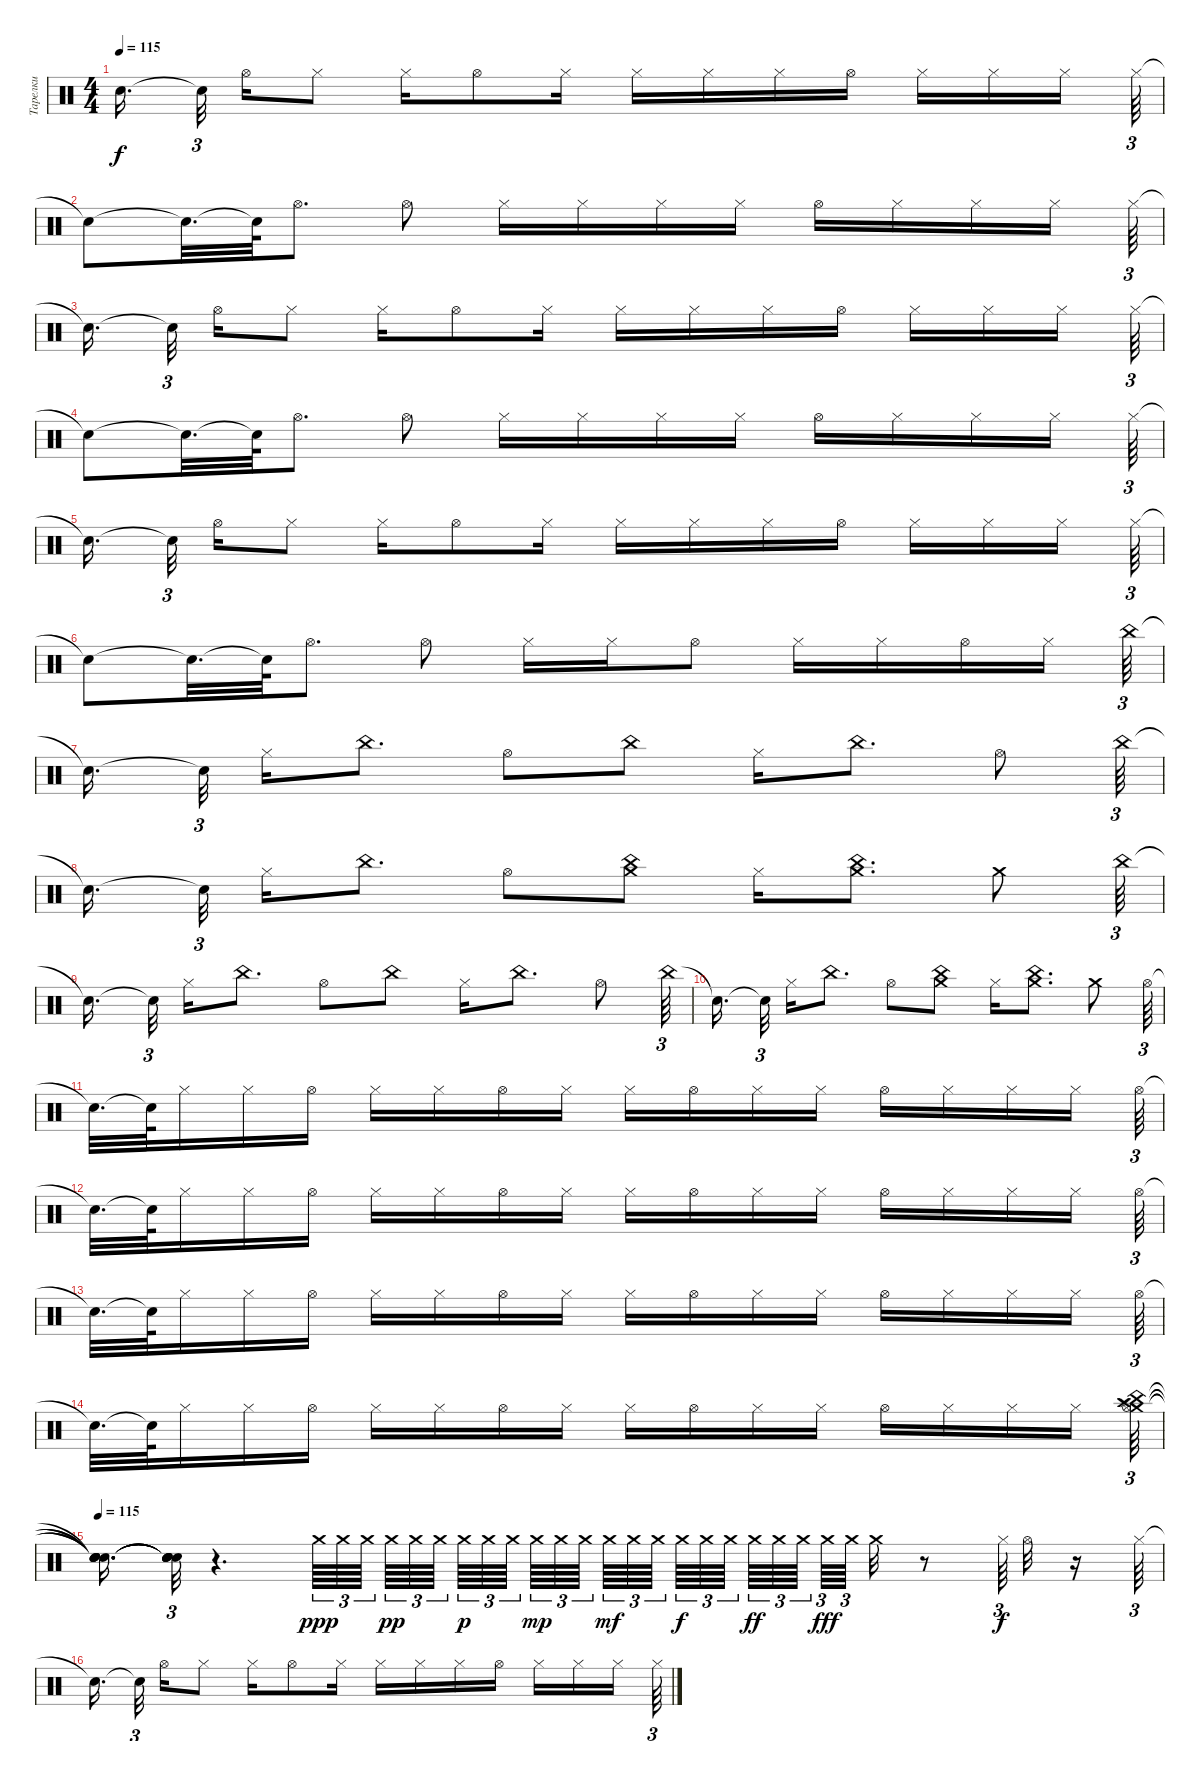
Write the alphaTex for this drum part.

\track ("Тарелки" "Тарелки") {instrument percussion}
\staff {score}
\articulation defaults
\ts (4 4)
\tempo 115
\clef neutral
\ks c "Snare (hit)"{t}.16{d dy f beam splitsecondary} "Snare (hit)"{t}.32{tu (3 2) beam splitsecondary} "Hi-Hat (open)".16 "Hi-Hat (closed)".8 "Hi-Hat (closed)".16 "Hi-Hat (open)".8 "Hi-Hat (closed)".16 "Hi-Hat (closed)".16 "Hi-Hat (closed)".16 "Hi-Hat (closed)".16 "Hi-Hat (open)".16 "Hi-Hat (closed)".16 "Hi-Hat (closed)".16 "Hi-Hat (closed)".16{beam splitsecondary} "Hi-Hat (closed)".64{tu (3 2)}
|
"Snare (hit)"{t}.8 "Snare (hit)"{t}.32{d} "Snare (hit)"{t}.64 "Hi-Hat (open)".8{d} "Hi-Hat (open)".8 "Hi-Hat (closed)".16 "Hi-Hat (closed)".16 "Hi-Hat (closed)".16 "Hi-Hat (closed)".16 "Hi-Hat (open)".16 "Hi-Hat (closed)".16 "Hi-Hat (closed)".16 "Hi-Hat (closed)".16 "Hi-Hat (closed)".64{tu (3 2)} |
"Snare (hit)"{t}.16{d beam splitsecondary} "Snare (hit)"{t}.32{tu (3 2) beam splitsecondary} "Hi-Hat (open)".16 "Hi-Hat (closed)".8 "Hi-Hat (closed)".16 "Hi-Hat (open)".8 "Hi-Hat (closed)".16 "Hi-Hat (closed)".16 "Hi-Hat (closed)".16 "Hi-Hat (closed)".16 "Hi-Hat (open)".16 "Hi-Hat (closed)".16 "Hi-Hat (closed)".16 "Hi-Hat (closed)".16{beam splitsecondary} "Hi-Hat (closed)".64{tu (3 2)} |
"Snare (hit)"{t}.8 "Snare (hit)"{t}.32{d} "Snare (hit)"{t}.64 "Hi-Hat (open)".8{d} "Hi-Hat (open)".8 "Hi-Hat (closed)".16 "Hi-Hat (closed)".16 "Hi-Hat (closed)".16 "Hi-Hat (closed)".16 "Hi-Hat (open)".16 "Hi-Hat (closed)".16 "Hi-Hat (closed)".16 "Hi-Hat (closed)".16 "Hi-Hat (closed)".64{tu (3 2)} |
"Snare (hit)"{t}.16{d beam splitsecondary} "Snare (hit)"{t}.32{tu (3 2) beam splitsecondary} "Hi-Hat (open)".16 "Hi-Hat (closed)".8 "Hi-Hat (closed)".16 "Hi-Hat (open)".8 "Hi-Hat (closed)".16 "Hi-Hat (closed)".16 "Hi-Hat (closed)".16 "Hi-Hat (closed)".16 "Hi-Hat (open)".16 "Hi-Hat (closed)".16 "Hi-Hat (closed)".16 "Hi-Hat (closed)".16{beam splitsecondary} "Hi-Hat (closed)".64{tu (3 2)} |
"Snare (hit)"{t}.8 "Snare (hit)"{t}.32{d} "Snare (hit)"{t}.64 "Hi-Hat (open)".8{d} "Hi-Hat (open)".8 "Hi-Hat (closed)".16 "Hi-Hat (closed)".16 "Hi-Hat (open)".8 "Hi-Hat (closed)".16 "Hi-Hat (closed)".16 "Hi-Hat (open)".16 "Hi-Hat (closed)".16 "China (hit)".64{tu (3 2)} |
"Snare (hit)"{t}.16{d beam splitsecondary} "Snare (hit)"{t}.32{tu (3 2) beam splitsecondary} "Hi-Hat (closed)".16 "China (hit)".8{d} "Hi-Hat (open)".8 "China (hit)".8 "Hi-Hat (closed)".16 "China (hit)".8{d} "Hi-Hat (open)".8 "China (hit)".64{tu (3 2)} |
"Snare (hit)"{t}.16{d beam splitsecondary} "Snare (hit)"{t}.32{tu (3 2) beam splitsecondary} "Hi-Hat (closed)".16 "China (hit)".8{d} "Hi-Hat (open)".8 ("China (hit)" "Crash medium (hit)").8 "Hi-Hat (closed)".16 ("China (hit)" "Crash medium (hit)").8{d} "Crash medium (hit)".8 "China (hit)".64{tu (3 2)} |
"Snare (hit)"{t}.16{d beam splitsecondary} "Snare (hit)"{t}.32{tu (3 2) beam splitsecondary} "Hi-Hat (closed)".16 "China (hit)".8{d} "Hi-Hat (open)".8 "China (hit)".8 "Hi-Hat (closed)".16 "China (hit)".8{d} "Hi-Hat (open)".8 "China (hit)".64{tu (3 2)} |
"Snare (hit)"{t}.16{d beam splitsecondary} "Snare (hit)"{t}.32{tu (3 2) beam splitsecondary} "Hi-Hat (closed)".16 "China (hit)".8{d} "Hi-Hat (open)".8 ("China (hit)" "Crash medium (hit)").8 "Hi-Hat (closed)".16 ("China (hit)" "Crash medium (hit)").8{d} "Crash medium (hit)".8 "Hi-Hat (open)".64{tu (3 2)} |
"Snare (hit)"{t}.32{d} "Snare (hit)"{t}.64 "Hi-Hat (closed)".16 "Hi-Hat (closed)".16 "Hi-Hat (open)".16 "Hi-Hat (closed)".16 "Hi-Hat (closed)".16 "Hi-Hat (open)".16 "Hi-Hat (closed)".16 "Hi-Hat (closed)".16 "Hi-Hat (open)".16 "Hi-Hat (closed)".16 "Hi-Hat (closed)".16 "Hi-Hat (open)".16 "Hi-Hat (closed)".16 "Hi-Hat (closed)".16 "Hi-Hat (closed)".16 "Hi-Hat (open)".64{tu (3 2)} |
"Snare (hit)"{t}.32{d} "Snare (hit)"{t}.64 "Hi-Hat (closed)".16 "Hi-Hat (closed)".16 "Hi-Hat (open)".16 "Hi-Hat (closed)".16 "Hi-Hat (closed)".16 "Hi-Hat (open)".16 "Hi-Hat (closed)".16 "Hi-Hat (closed)".16 "Hi-Hat (open)".16 "Hi-Hat (closed)".16 "Hi-Hat (closed)".16 "Hi-Hat (open)".16 "Hi-Hat (closed)".16 "Hi-Hat (closed)".16 "Hi-Hat (closed)".16 "Hi-Hat (open)".64{tu (3 2)} |
"Snare (hit)"{t}.32{d} "Snare (hit)"{t}.64 "Hi-Hat (closed)".16 "Hi-Hat (closed)".16 "Hi-Hat (open)".16 "Hi-Hat (closed)".16 "Hi-Hat (closed)".16 "Hi-Hat (open)".16 "Hi-Hat (closed)".16 "Hi-Hat (closed)".16 "Hi-Hat (open)".16 "Hi-Hat (closed)".16 "Hi-Hat (closed)".16 "Hi-Hat (open)".16 "Hi-Hat (closed)".16 "Hi-Hat (closed)".16 "Hi-Hat (closed)".16 "Hi-Hat (open)".64{tu (3 2)} |
"Snare (hit)"{t}.32{d} "Snare (hit)"{t}.64 "Hi-Hat (closed)".16 "Hi-Hat (closed)".16 "Hi-Hat (open)".16 "Hi-Hat (closed)".16 "Hi-Hat (closed)".16 "Hi-Hat (open)".16 "Hi-Hat (closed)".16 "Hi-Hat (closed)".16 "Hi-Hat (open)".16 "Hi-Hat (closed)".16 "Hi-Hat (closed)".16 "Hi-Hat (open)".16 "Hi-Hat (closed)".16 "Hi-Hat (closed)".16 "Hi-Hat (closed)".16 ("Crash medium (hit)" "Crash high (hit)" "Hi-Hat (open)" "Splash (hit)" "China (hit)").64{tu (3 2)} |
\tempo 115
("Snare (hit)"{t} "Snare (hit)"{t} "Snare (hit)"{t} "Snare (hit)"{t} "Snare (hit)"{t}).16{d} ("Snare (hit)"{t} "Snare (hit)"{t} "Snare (hit)"{t} "Snare (hit)"{t} "Snare (hit)"{t}).32{tu (3 2)} r.4{d} "Crash medium (hit)".64{tu (3 2) dy ppp} "Crash medium (hit)".64{tu (3 2)} "Crash medium (hit)".64{tu (3 2) beam splitsecondary} "Crash medium (hit)".64{tu (3 2) dy pp} "Crash medium (hit)".64{tu (3 2)} "Crash medium (hit)".64{tu (3 2) beam splitsecondary} "Crash medium (hit)".64{tu (3 2) dy p} "Crash medium (hit)".64{tu (3 2)} "Crash medium (hit)".64{tu (3 2) beam splitsecondary} "Crash medium (hit)".64{tu (3 2) dy mp} "Crash medium (hit)".64{tu (3 2)} "Crash medium (hit)".64{tu (3 2) beam splitsecondary} "Crash medium (hit)".64{tu (3 2) dy mf} "Crash medium (hit)".64{tu (3 2)} "Crash medium (hit)".64{tu (3 2) beam splitsecondary} "Crash medium (hit)".64{tu (3 2) dy f} "Crash medium (hit)".64{tu (3 2)} "Crash medium (hit)".64{tu (3 2) beam splitsecondary} "Crash medium (hit)".64{tu (3 2) dy ff} "Crash medium (hit)".64{tu (3 2)} "Crash medium (hit)".64{tu (3 2) beam splitsecondary} "Crash medium (hit)".64{tu (3 2) dy fff} "Crash medium (hit)".64{tu (3 2) beam splitsecondary} "Crash medium (hit)".32 r.8 "Hi-Hat (closed)".64{tu (3 2) dy f} "Hi-Hat (open)".32 r.16 "Hi-Hat (closed)".64{tu (3 2)} |
"Snare (hit)"{t}.16{d beam splitsecondary} "Snare (hit)"{t}.32{tu (3 2) beam splitsecondary} "Hi-Hat (open)".16 "Hi-Hat (closed)".8 "Hi-Hat (closed)".16 "Hi-Hat (open)".8 "Hi-Hat (closed)".16 "Hi-Hat (closed)".16 "Hi-Hat (closed)".16 "Hi-Hat (closed)".16 "Hi-Hat (open)".16 "Hi-Hat (closed)".16 "Hi-Hat (closed)".16 "Hi-Hat (closed)".16{beam splitsecondary} "Hi-Hat (closed)".64{tu (3 2)}
